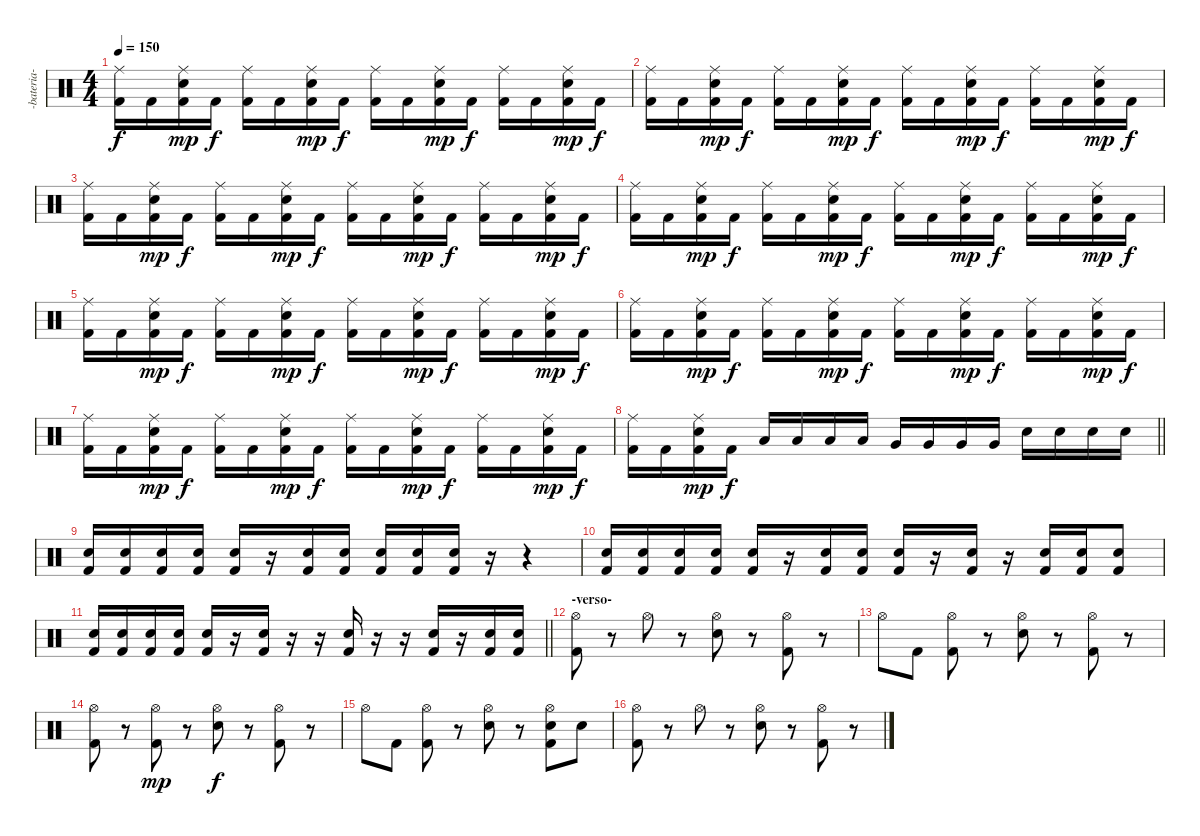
\track ("-bateria-" "-bateria-") {instrument percussion}
\staff {score}
\articulation defaults
\ts (4 4)
\tempo 150
\clef neutral
\ks c
("Ride (middle)" "Kick (hit) 2").16{dy f} "Kick (hit) 2".16 ("Ride (middle)" "Electric Snare (hit)" "Kick (hit) 2").16{dy mp} "Kick (hit) 2".16{dy f} ("Ride (middle)" "Kick (hit) 2").16 "Kick (hit) 2".16 ("Ride (middle)" "Electric Snare (hit)" "Kick (hit) 2").16{dy mp} "Kick (hit) 2".16{dy f} ("Ride (middle)" "Kick (hit) 2").16 "Kick (hit) 2".16 ("Ride (middle)" "Electric Snare (hit)" "Kick (hit) 2").16{dy mp} "Kick (hit) 2".16{dy f} ("Ride (middle)" "Kick (hit) 2").16 "Kick (hit) 2".16 ("Ride (middle)" "Electric Snare (hit)" "Kick (hit) 2").16{dy mp} "Kick (hit) 2".16{dy f} |
("Ride (middle)" "Kick (hit) 2").16 "Kick (hit) 2".16 ("Ride (middle)" "Electric Snare (hit)" "Kick (hit) 2").16{dy mp} "Kick (hit) 2".16{dy f} ("Ride (middle)" "Kick (hit) 2").16 "Kick (hit) 2".16 ("Ride (middle)" "Electric Snare (hit)" "Kick (hit) 2").16{dy mp} "Kick (hit) 2".16{dy f} ("Ride (middle)" "Kick (hit) 2").16 "Kick (hit) 2".16 ("Ride (middle)" "Electric Snare (hit)" "Kick (hit) 2").16{dy mp} "Kick (hit) 2".16{dy f} ("Ride (middle)" "Kick (hit) 2").16 "Kick (hit) 2".16 ("Ride (middle)" "Electric Snare (hit)" "Kick (hit) 2").16{dy mp} "Kick (hit) 2".16{dy f} |
("Ride (middle)" "Kick (hit) 2").16 "Kick (hit) 2".16 ("Ride (middle)" "Electric Snare (hit)" "Kick (hit) 2").16{dy mp} "Kick (hit) 2".16{dy f} ("Ride (middle)" "Kick (hit) 2").16 "Kick (hit) 2".16 ("Ride (middle)" "Electric Snare (hit)" "Kick (hit) 2").16{dy mp} "Kick (hit) 2".16{dy f} ("Ride (middle)" "Kick (hit) 2").16 "Kick (hit) 2".16 ("Ride (middle)" "Electric Snare (hit)" "Kick (hit) 2").16{dy mp} "Kick (hit) 2".16{dy f} ("Ride (middle)" "Kick (hit) 2").16 "Kick (hit) 2".16 ("Ride (middle)" "Electric Snare (hit)" "Kick (hit) 2").16{dy mp} "Kick (hit) 2".16{dy f} |
("Ride (middle)" "Kick (hit) 2").16 "Kick (hit) 2".16 ("Ride (middle)" "Electric Snare (hit)" "Kick (hit) 2").16{dy mp} "Kick (hit) 2".16{dy f} ("Ride (middle)" "Kick (hit) 2").16 "Kick (hit) 2".16 ("Ride (middle)" "Electric Snare (hit)" "Kick (hit) 2").16{dy mp} "Kick (hit) 2".16{dy f} ("Ride (middle)" "Kick (hit) 2").16 "Kick (hit) 2".16 ("Ride (middle)" "Electric Snare (hit)" "Kick (hit) 2").16{dy mp} "Kick (hit) 2".16{dy f} ("Ride (middle)" "Kick (hit) 2").16 "Kick (hit) 2".16 ("Ride (middle)" "Electric Snare (hit)" "Kick (hit) 2").16{dy mp} "Kick (hit) 2".16{dy f} |
("Ride (middle)" "Kick (hit) 2").16 "Kick (hit) 2".16 ("Ride (middle)" "Electric Snare (hit)" "Kick (hit) 2").16{dy mp} "Kick (hit) 2".16{dy f} ("Ride (middle)" "Kick (hit) 2").16 "Kick (hit) 2".16 ("Ride (middle)" "Electric Snare (hit)" "Kick (hit) 2").16{dy mp} "Kick (hit) 2".16{dy f} ("Ride (middle)" "Kick (hit) 2").16 "Kick (hit) 2".16 ("Ride (middle)" "Electric Snare (hit)" "Kick (hit) 2").16{dy mp} "Kick (hit) 2".16{dy f} ("Ride (middle)" "Kick (hit) 2").16 "Kick (hit) 2".16 ("Ride (middle)" "Electric Snare (hit)" "Kick (hit) 2").16{dy mp} "Kick (hit) 2".16{dy f} |
("Ride (middle)" "Kick (hit) 2").16 "Kick (hit) 2".16 ("Ride (middle)" "Electric Snare (hit)" "Kick (hit) 2").16{dy mp} "Kick (hit) 2".16{dy f} ("Ride (middle)" "Kick (hit) 2").16 "Kick (hit) 2".16 ("Ride (middle)" "Electric Snare (hit)" "Kick (hit) 2").16{dy mp} "Kick (hit) 2".16{dy f} ("Ride (middle)" "Kick (hit) 2").16 "Kick (hit) 2".16 ("Ride (middle)" "Electric Snare (hit)" "Kick (hit) 2").16{dy mp} "Kick (hit) 2".16{dy f} ("Ride (middle)" "Kick (hit) 2").16 "Kick (hit) 2".16 ("Ride (middle)" "Electric Snare (hit)" "Kick (hit) 2").16{dy mp} "Kick (hit) 2".16{dy f} |
("Ride (middle)" "Kick (hit) 2").16 "Kick (hit) 2".16 ("Ride (middle)" "Electric Snare (hit)" "Kick (hit) 2").16{dy mp} "Kick (hit) 2".16{dy f} ("Ride (middle)" "Kick (hit) 2").16 "Kick (hit) 2".16 ("Ride (middle)" "Electric Snare (hit)" "Kick (hit) 2").16{dy mp} "Kick (hit) 2".16{dy f} ("Ride (middle)" "Kick (hit) 2").16 "Kick (hit) 2".16 ("Ride (middle)" "Electric Snare (hit)" "Kick (hit) 2").16{dy mp} "Kick (hit) 2".16{dy f} ("Ride (middle)" "Kick (hit) 2").16 "Kick (hit) 2".16 ("Ride (middle)" "Electric Snare (hit)" "Kick (hit) 2").16{dy mp} "Kick (hit) 2".16{dy f} |
\barLineRight lightlight
("Ride (middle)" "Kick (hit) 2").16 "Kick (hit) 2".16 ("Ride (middle)" "Electric Snare (hit)" "Kick (hit) 2").16{dy mp} "Kick (hit) 2".16{dy f} "Low Tom (hit)".16 "Low Tom (hit)".16 "Low Tom (hit)".16 "Low Tom (hit)".16 "Very Low Tom (hit)".16 "Very Low Tom (hit)".16 "Very Low Tom (hit)".16 "Very Low Tom (hit)".16 "Electric Snare (hit)".16 "Electric Snare (hit)".16 "Electric Snare (hit)".16 "Electric Snare (hit)".16 |
\section ("" "")
("Snare (hit) 2" "Kick (hit) 2").16 ("Snare (hit) 2" "Kick (hit) 2").16 ("Snare (hit) 2" "Kick (hit) 2").16 ("Snare (hit) 2" "Kick (hit) 2").16 ("Snare (hit) 2" "Kick (hit) 2").16 r.16 ("Snare (hit) 2" "Kick (hit) 2").16 ("Snare (hit) 2" "Kick (hit) 2").16 ("Snare (hit) 2" "Kick (hit) 2").16 ("Snare (hit) 2" "Kick (hit) 2").16 ("Snare (hit) 2" "Kick (hit) 2").16 r.16 r.4 |
("Snare (hit) 2" "Kick (hit) 2").16 ("Snare (hit) 2" "Kick (hit) 2").16 ("Snare (hit) 2" "Kick (hit) 2").16 ("Snare (hit) 2" "Kick (hit) 2").16 ("Snare (hit) 2" "Kick (hit) 2").16 r.16 ("Snare (hit) 2" "Kick (hit) 2").16 ("Snare (hit) 2" "Kick (hit) 2").16 ("Snare (hit) 2" "Kick (hit) 2").16 r.16 ("Snare (hit) 2" "Kick (hit) 2").16 r.16 ("Snare (hit) 2" "Kick (hit) 2").16 ("Snare (hit) 2" "Kick (hit) 2").16 ("Snare (hit) 2" "Kick (hit) 2").8 |
\barLineRight lightlight
("Snare (hit) 2" "Kick (hit) 2").16 ("Snare (hit) 2" "Kick (hit) 2").16 ("Snare (hit) 2" "Kick (hit) 2").16 ("Snare (hit) 2" "Kick (hit) 2").16 ("Snare (hit) 2" "Kick (hit) 2").16 r.16 ("Snare (hit) 2" "Kick (hit) 2").16 r.16 r.16 ("Snare (hit) 2" "Kick (hit) 2").16 r.16 r.16 ("Snare (hit) 2" "Kick (hit) 2").16 r.16 ("Snare (hit) 2" "Kick (hit) 2").16 ("Snare (hit) 2" "Kick (hit) 2").16 |
\section ("" "-verso-")
("Hi-Hat (open)" "Kick (hit) 2").8 r.8 "Hi-Hat (open)".8 r.8 ("Hi-Hat (open)" "Electric Snare (hit)").8 r.8 ("Hi-Hat (open)" "Kick (hit) 2").8 r.8 |
"Hi-Hat (open)".8 "Kick (hit) 2".8 ("Hi-Hat (open)" "Kick (hit) 2").8 r.8 ("Hi-Hat (open)" "Electric Snare (hit)").8 r.8 ("Hi-Hat (open)" "Kick (hit) 2").8 r.8 |
("Hi-Hat (open)" "Kick (hit) 2").8 r.8 ("Hi-Hat (open)" "Kick (hit) 2").8{dy mp} r.8 ("Hi-Hat (open)" "Electric Snare (hit)").8{dy f} r.8 ("Hi-Hat (open)" "Kick (hit) 2").8 r.8 |
"Hi-Hat (open)".8 "Kick (hit) 2".8 ("Hi-Hat (open)" "Kick (hit) 2").8 r.8 ("Hi-Hat (open)" "Electric Snare (hit)").8 r.8 ("Hi-Hat (open)" "Electric Snare (hit)" "Kick (hit) 2").8 "Electric Snare (hit)".8 |
("Hi-Hat (open)" "Kick (hit) 2").8 r.8 "Hi-Hat (open)".8 r.8 ("Hi-Hat (open)" "Electric Snare (hit)").8 r.8 ("Hi-Hat (open)" "Kick (hit) 2").8 r.8
